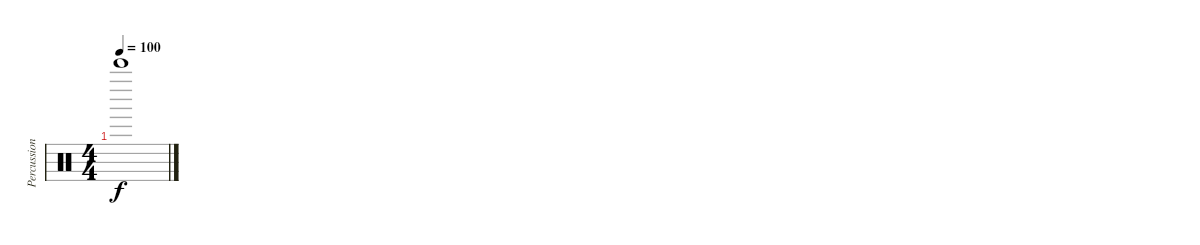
\track ("Percussion" "Percussion") {instrument percussion}
\staff {score}
\articulation defaults
\ts (4 4)
\tempo 100
\clef neutral
\ks c "Bell Tree (hit)".1{dy f}
